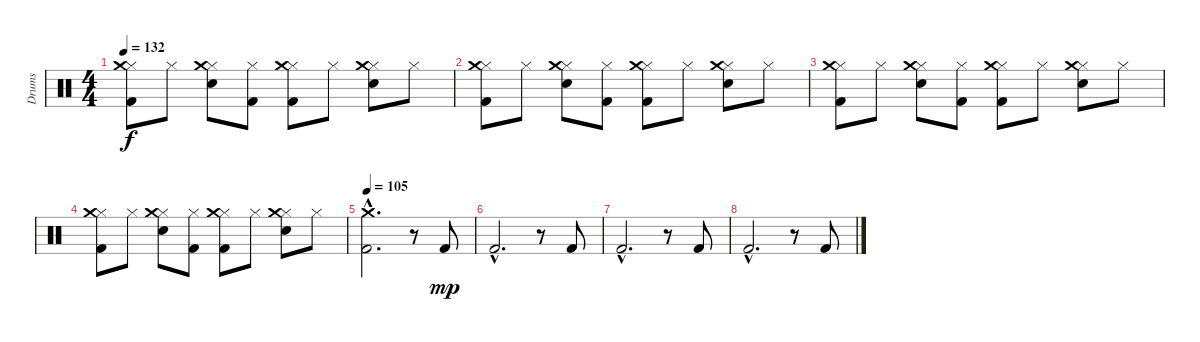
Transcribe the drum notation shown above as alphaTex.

\track ("Drums" "Drums") {instrument percussion}
\staff {score}
\articulation defaults
\ts (4 4)
\tempo 132
\clef neutral
\ks c
("Hi-Hat (closed)" "Crash medium (hit)" "Kick (hit) 2").8{dy f} "Hi-Hat (closed)".8 ("Hi-Hat (closed)" "Crash medium (hit)" "Snare (hit) 2").8 ("Hi-Hat (closed)" "Kick (hit) 2").8 ("Hi-Hat (closed)" "Crash medium (hit)" "Kick (hit) 2").8 "Hi-Hat (closed)".8 ("Hi-Hat (closed)" "Crash medium (hit)" "Snare (hit) 2").8 "Hi-Hat (closed)".8 |
("Hi-Hat (closed)" "Crash medium (hit)" "Kick (hit) 2").8 "Hi-Hat (closed)".8 ("Hi-Hat (closed)" "Crash medium (hit)" "Snare (hit) 2").8 ("Hi-Hat (closed)" "Kick (hit) 2").8 ("Hi-Hat (closed)" "Crash medium (hit)" "Kick (hit) 2").8 "Hi-Hat (closed)".8 ("Hi-Hat (closed)" "Crash medium (hit)" "Snare (hit) 2").8 "Hi-Hat (closed)".8 |
("Hi-Hat (closed)" "Crash medium (hit)" "Kick (hit) 2").8 "Hi-Hat (closed)".8 ("Hi-Hat (closed)" "Crash medium (hit)" "Snare (hit) 2").8 ("Hi-Hat (closed)" "Kick (hit) 2").8 ("Hi-Hat (closed)" "Crash medium (hit)" "Kick (hit) 2").8 "Hi-Hat (closed)".8 ("Hi-Hat (closed)" "Crash medium (hit)" "Snare (hit) 2").8 "Hi-Hat (closed)".8 |
("Hi-Hat (closed)" "Crash medium (hit)" "Kick (hit) 2").8 "Hi-Hat (closed)".8 ("Hi-Hat (closed)" "Crash medium (hit)" "Snare (hit) 2").8 ("Hi-Hat (closed)" "Kick (hit) 2").8 ("Hi-Hat (closed)" "Crash medium (hit)" "Kick (hit) 2").8 "Hi-Hat (closed)".8 ("Hi-Hat (closed)" "Crash medium (hit)" "Snare (hit) 2").8 "Hi-Hat (closed)".8 |
\tempo 105
("Crash medium (hit)"{hac} "Kick (hit) 2"{hac}).2{d} r.8 "Kick (hit) 2".8{dy mp} |
"Kick (hit) 2"{hac}.2{d} r.8 "Kick (hit) 2".8 |
"Kick (hit) 2"{hac}.2{d} r.8 "Kick (hit) 2".8 |
"Kick (hit) 2"{hac}.2{d} r.8 "Kick (hit) 2".8
